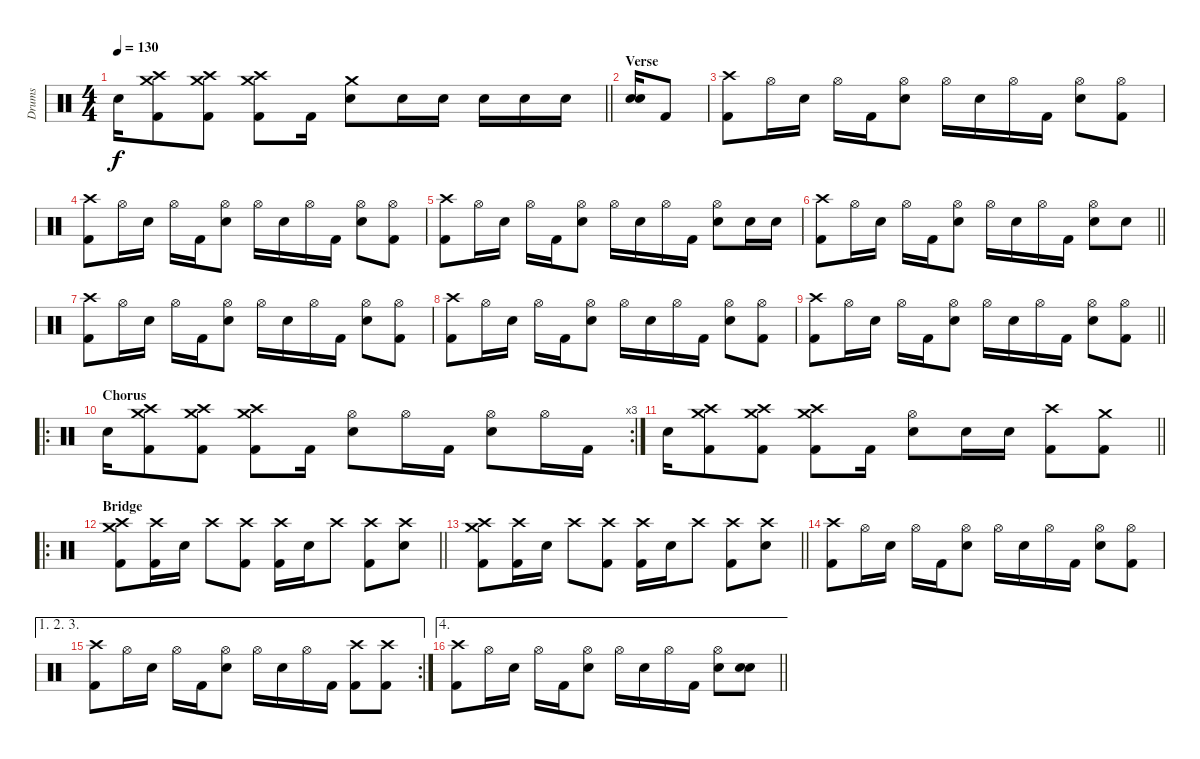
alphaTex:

\track ("Drums" "Drums") {instrument percussion}
\staff {score}
\articulation defaults
\ts (4 4)
\tempo 130
\clef neutral
\barLineRight lightlight
\ks c "Electric Snare (hit)".16{dy f}
("Crash high (hit)" "Crash medium (hit)" "Kick (hit) 2").8 ("Crash high (hit)" "Crash medium (hit)" "Kick (hit) 2").8 ("Crash high (hit)" "Crash medium (hit)" "Kick (hit) 2").8 "Kick (hit) 2".16 ("Crash medium (hit)" "Electric Snare (hit)").8 "Electric Snare (hit)".16 "Electric Snare (hit)".16 "Electric Snare (hit)".16 "Electric Snare (hit)".16 "Electric Snare (hit)".16 |
\section ("" "Verse")
("Electric Snare (hit)" "Electric Snare (hit)").16 "Kick (hit) 2".8 |
("Crash high (hit)" "Kick (hit) 2").8 "Hi-Hat (open)".16 "Electric Snare (hit)".16 "Hi-Hat (open)".16 "Kick (hit) 2".16 ("Hi-Hat (open)" "Electric Snare (hit)").8 "Hi-Hat (open)".16 "Electric Snare (hit)".16 "Hi-Hat (open)".16 "Kick (hit) 2".16 ("Hi-Hat (open)" "Electric Snare (hit)").8 ("Hi-Hat (open)" "Kick (hit) 2").8 |
("Crash high (hit)" "Kick (hit) 2").8 "Hi-Hat (open)".16 "Electric Snare (hit)".16 "Hi-Hat (open)".16 "Kick (hit) 2".16 ("Hi-Hat (open)" "Electric Snare (hit)").8 "Hi-Hat (open)".16 "Electric Snare (hit)".16 "Hi-Hat (open)".16 "Kick (hit) 2".16 ("Hi-Hat (open)" "Electric Snare (hit)").8 ("Hi-Hat (open)" "Kick (hit) 2").8 |
("Crash high (hit)" "Kick (hit) 2").8 "Hi-Hat (open)".16 "Electric Snare (hit)".16 "Hi-Hat (open)".16 "Kick (hit) 2".16 ("Hi-Hat (open)" "Electric Snare (hit)").8 "Hi-Hat (open)".16 "Electric Snare (hit)".16 "Hi-Hat (open)".16 "Kick (hit) 2".16 ("Hi-Hat (open)" "Electric Snare (hit)").8 "Electric Snare (hit)".16 "Electric Snare (hit)".16 |
\barLineRight lightlight
("Crash high (hit)" "Kick (hit) 2").8 "Hi-Hat (open)".16 "Electric Snare (hit)".16 "Hi-Hat (open)".16 "Kick (hit) 2".16 ("Hi-Hat (open)" "Electric Snare (hit)").8 "Hi-Hat (open)".16 "Electric Snare (hit)".16 "Hi-Hat (open)".16 "Kick (hit) 2".16 ("Hi-Hat (open)" "Electric Snare (hit)").8 "Electric Snare (hit)".8 |
("Crash high (hit)" "Kick (hit) 2").8 "Hi-Hat (open)".16 "Electric Snare (hit)".16 "Hi-Hat (open)".16 "Kick (hit) 2".16 ("Hi-Hat (open)" "Electric Snare (hit)").8 "Hi-Hat (open)".16 "Electric Snare (hit)".16 "Hi-Hat (open)".16 "Kick (hit) 2".16 ("Hi-Hat (open)" "Electric Snare (hit)").8 ("Hi-Hat (open)" "Kick (hit) 2").8 |
("Crash high (hit)" "Kick (hit) 2").8 "Hi-Hat (open)".16 "Electric Snare (hit)".16 "Hi-Hat (open)".16 "Kick (hit) 2".16 ("Hi-Hat (open)" "Electric Snare (hit)").8 "Hi-Hat (open)".16 "Electric Snare (hit)".16 "Hi-Hat (open)".16 "Kick (hit) 2".16 ("Hi-Hat (open)" "Electric Snare (hit)").8 ("Hi-Hat (open)" "Kick (hit) 2").8 |
\barLineRight lightlight
("Crash high (hit)" "Kick (hit) 2").8 "Hi-Hat (open)".16 "Electric Snare (hit)".16 "Hi-Hat (open)".16 "Kick (hit) 2".16 ("Hi-Hat (open)" "Electric Snare (hit)").8 "Hi-Hat (open)".16 "Electric Snare (hit)".16 "Hi-Hat (open)".16 "Kick (hit) 2".16 ("Hi-Hat (open)" "Electric Snare (hit)").8 ("Hi-Hat (open)" "Kick (hit) 2").8 |
\ro
\rc 3
\section ("" "Chorus")
"Electric Snare (hit)".16 ("Crash high (hit)" "Crash medium (hit)" "Kick (hit) 2").8 ("Crash high (hit)" "Crash medium (hit)" "Kick (hit) 2").8 ("Crash high (hit)" "Crash medium (hit)" "Kick (hit) 2").8 "Kick (hit) 2".16 ("Hi-Hat (open)" "Electric Snare (hit)").8 "Hi-Hat (open)".16 "Kick (hit) 2".16 ("Hi-Hat (open)" "Electric Snare (hit)").8 "Hi-Hat (open)".16 "Kick (hit) 2".16 |
\barLineRight lightlight "Electric Snare (hit)".16
("Crash high (hit)" "Crash medium (hit)" "Kick (hit) 2").8 ("Crash high (hit)" "Crash medium (hit)" "Kick (hit) 2").8 ("Crash high (hit)" "Crash medium (hit)" "Kick (hit) 2").8 "Kick (hit) 2".16 ("Hi-Hat (open)" "Electric Snare (hit)").8 "Electric Snare (hit)".16 "Electric Snare (hit)".16 ("Crash high (hit)" "Kick (hit) 2").8 ("Crash medium (hit)" "Kick (hit) 2").8 |
\ro
\section ("" "Bridge")
\barLineRight lightlight
("Crash high (hit)" "Crash medium (hit)" "Kick (hit) 2").8 ("Crash high (hit)" "Kick (hit) 2").16 "Electric Snare (hit)".16 "Crash high (hit)".8 ("Crash high (hit)" "Kick (hit) 2").8 ("Crash high (hit)" "Kick (hit) 2").16 "Electric Snare (hit)".16 "Crash high (hit)".8 ("Crash high (hit)" "Kick (hit) 2").8 ("Crash high (hit)" "Electric Snare (hit)").8 |
\barLineRight lightlight
("Crash high (hit)" "Crash medium (hit)" "Kick (hit) 2").8 ("Crash high (hit)" "Kick (hit) 2").16 "Electric Snare (hit)".16 "Crash high (hit)".8 ("Crash high (hit)" "Kick (hit) 2").8 ("Crash high (hit)" "Kick (hit) 2").16 "Electric Snare (hit)".16 "Crash high (hit)".8 ("Crash high (hit)" "Kick (hit) 2").8 ("Crash high (hit)" "Electric Snare (hit)").8 |
("Crash high (hit)" "Kick (hit) 2").8 "Hi-Hat (open)".16 "Electric Snare (hit)".16 "Hi-Hat (open)".16 "Kick (hit) 2".16 ("Hi-Hat (open)" "Electric Snare (hit)").8 "Hi-Hat (open)".16 "Electric Snare (hit)".16 "Hi-Hat (open)".16 "Kick (hit) 2".16 ("Hi-Hat (open)" "Electric Snare (hit)").8 ("Hi-Hat (open)" "Kick (hit) 2").8 |
\ae (1 2 3)
\rc 2
("Crash high (hit)" "Kick (hit) 2").8 "Hi-Hat (open)".16 "Electric Snare (hit)".16 "Hi-Hat (open)".16 "Kick (hit) 2".16 ("Hi-Hat (open)" "Electric Snare (hit)").8 "Hi-Hat (open)".16 "Electric Snare (hit)".16 "Hi-Hat (open)".16 "Kick (hit) 2".16 ("Crash high (hit)" "Kick (hit) 2").8 ("Crash high (hit)" "Kick (hit) 2").8 |
\ae 4
\barLineRight lightlight
("Crash high (hit)" "Kick (hit) 2").8 "Hi-Hat (open)".16 "Electric Snare (hit)".16 "Hi-Hat (open)".16 "Kick (hit) 2".16 ("Hi-Hat (open)" "Electric Snare (hit)").8 "Hi-Hat (open)".16 "Electric Snare (hit)".16 "Hi-Hat (open)".16 "Kick (hit) 2".16 ("Hi-Hat (open)" "Electric Snare (hit)").8 ("Electric Snare (hit)" "Electric Snare (hit)").8
